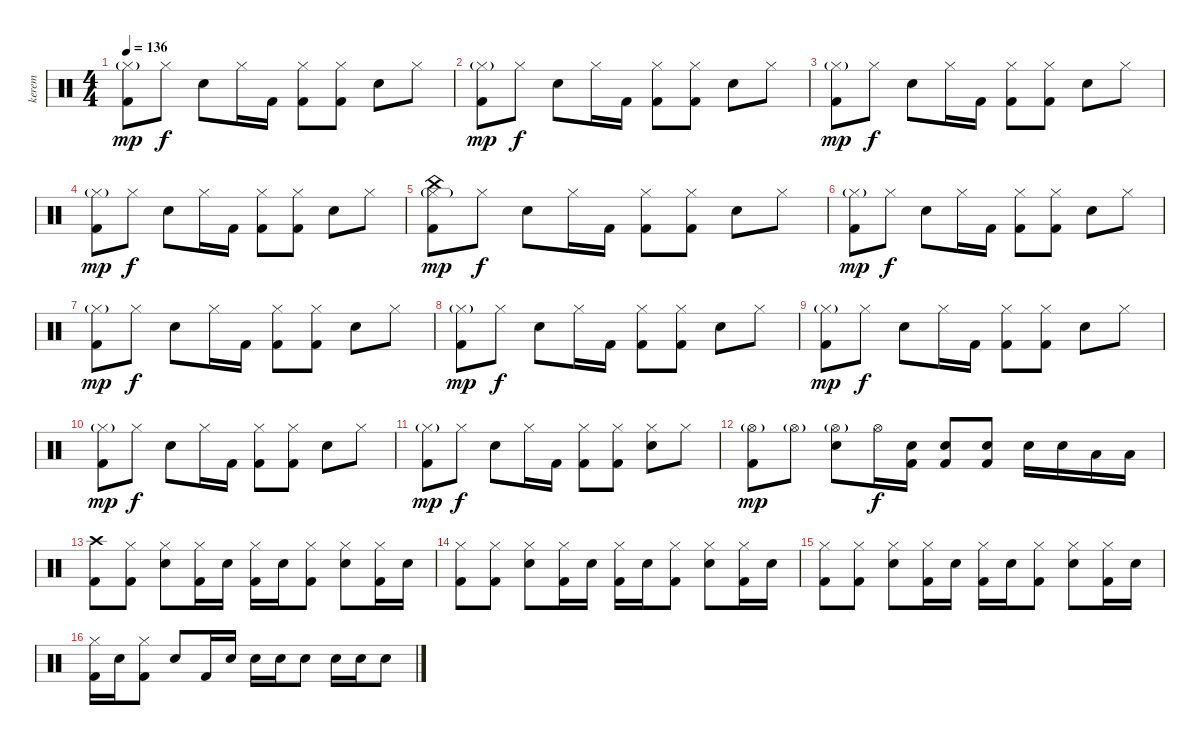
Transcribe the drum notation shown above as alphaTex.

\track ("kerem" "kerem") {instrument percussion}
\staff {score}
\articulation defaults
\ts (4 4)
\tempo 136
\clef neutral
\ks c
("Kick (hit) 2" "Hi-Hat (closed)"{g}).8{dy mp} "Hi-Hat (closed)".8{dy f} "Electric Snare (hit)".8 "Hi-Hat (closed)".16 "Kick (hit) 2".16 ("Kick (hit) 2" "Hi-Hat (closed)").8 ("Kick (hit) 2" "Hi-Hat (closed)").8 "Electric Snare (hit)".8 "Hi-Hat (closed)".8 |
("Kick (hit) 2" "Hi-Hat (closed)"{g}).8{dy mp} "Hi-Hat (closed)".8{dy f} "Electric Snare (hit)".8 "Hi-Hat (closed)".16 "Kick (hit) 2".16 ("Kick (hit) 2" "Hi-Hat (closed)").8 ("Kick (hit) 2" "Hi-Hat (closed)").8 "Electric Snare (hit)".8 "Hi-Hat (closed)".8 |
("Kick (hit) 2" "Hi-Hat (closed)"{g}).8{dy mp} "Hi-Hat (closed)".8{dy f} "Electric Snare (hit)".8 "Hi-Hat (closed)".16 "Kick (hit) 2".16 ("Kick (hit) 2" "Hi-Hat (closed)").8 ("Kick (hit) 2" "Hi-Hat (closed)").8 "Electric Snare (hit)".8 "Hi-Hat (closed)".8 |
("Kick (hit) 2" "Hi-Hat (closed)"{g}).8{dy mp} "Hi-Hat (closed)".8{dy f} "Electric Snare (hit)".8 "Hi-Hat (closed)".16 "Kick (hit) 2".16 ("Kick (hit) 2" "Hi-Hat (closed)").8 ("Kick (hit) 2" "Hi-Hat (closed)").8 "Electric Snare (hit)".8 "Hi-Hat (closed)".8 |
("China (hit)" "Kick (hit) 2" "Hi-Hat (closed)"{g}).8{dy mp} "Hi-Hat (closed)".8{dy f} "Electric Snare (hit)".8 "Hi-Hat (closed)".16 "Kick (hit) 2".16 ("Kick (hit) 2" "Hi-Hat (closed)").8 ("Kick (hit) 2" "Hi-Hat (closed)").8 "Electric Snare (hit)".8 "Hi-Hat (closed)".8 |
("Kick (hit) 2" "Hi-Hat (closed)"{g}).8{dy mp} "Hi-Hat (closed)".8{dy f} "Electric Snare (hit)".8 "Hi-Hat (closed)".16 "Kick (hit) 2".16 ("Kick (hit) 2" "Hi-Hat (closed)").8 ("Kick (hit) 2" "Hi-Hat (closed)").8 "Electric Snare (hit)".8 "Hi-Hat (closed)".8 |
("Kick (hit) 2" "Hi-Hat (closed)"{g}).8{dy mp} "Hi-Hat (closed)".8{dy f} "Electric Snare (hit)".8 "Hi-Hat (closed)".16 "Kick (hit) 2".16 ("Kick (hit) 2" "Hi-Hat (closed)").8 ("Kick (hit) 2" "Hi-Hat (closed)").8 "Electric Snare (hit)".8 "Hi-Hat (closed)".8 |
("Kick (hit) 2" "Hi-Hat (closed)"{g}).8{dy mp} "Hi-Hat (closed)".8{dy f} "Electric Snare (hit)".8 "Hi-Hat (closed)".16 "Kick (hit) 2".16 ("Kick (hit) 2" "Hi-Hat (closed)").8 ("Kick (hit) 2" "Hi-Hat (closed)").8 "Electric Snare (hit)".8 "Hi-Hat (closed)".8 |
("Kick (hit) 2" "Hi-Hat (closed)"{g}).8{dy mp} "Hi-Hat (closed)".8{dy f} "Electric Snare (hit)".8 "Hi-Hat (closed)".16 "Kick (hit) 2".16 ("Kick (hit) 2" "Hi-Hat (closed)").8 ("Kick (hit) 2" "Hi-Hat (closed)").8 "Electric Snare (hit)".8 "Hi-Hat (closed)".8 |
("Kick (hit) 2" "Hi-Hat (closed)"{g}).8{dy mp} "Hi-Hat (closed)".8{dy f} "Electric Snare (hit)".8 "Hi-Hat (closed)".16 "Kick (hit) 2".16 ("Kick (hit) 2" "Hi-Hat (closed)").8 ("Kick (hit) 2" "Hi-Hat (closed)").8 "Electric Snare (hit)".8 "Hi-Hat (closed)".8 |
("Kick (hit) 2" "Hi-Hat (closed)"{g}).8{dy mp} "Hi-Hat (closed)".8{dy f} "Electric Snare (hit)".8 "Hi-Hat (closed)".16 "Kick (hit) 2".16 ("Kick (hit) 2" "Hi-Hat (closed)").8 ("Kick (hit) 2" "Hi-Hat (closed)").8 ("Electric Snare (hit)" "Hi-Hat (closed)").8 "Hi-Hat (closed)".8 |
("Kick (hit) 2" "Hi-Hat (open)"{g}).8{dy mp} "Hi-Hat (open)"{g}.8 ("Electric Snare (hit)" "Hi-Hat (open)"{g}).8 "Hi-Hat (open)".16{dy f} ("Kick (hit) 2" "Electric Snare (hit)").16 ("Kick (hit) 2" "Electric Snare (hit)").8 ("Kick (hit) 2" "Electric Snare (hit)").8 "Electric Snare (hit)".16 "Electric Snare (hit)".16 "Low Tom (hit)".16 "Low Tom (hit)".16 |
("Kick (hit) 2" "Crash high (hit)").8 ("Kick (hit) 2" "Hi-Hat (closed)").8 ("Electric Snare (hit)" "Hi-Hat (closed)").8 ("Kick (hit) 2" "Hi-Hat (closed)").16 "Electric Snare (hit)".16 ("Kick (hit) 2" "Hi-Hat (closed)").16 "Electric Snare (hit)".16 ("Kick (hit) 2" "Hi-Hat (closed)").8 ("Electric Snare (hit)" "Hi-Hat (closed)").8 ("Kick (hit) 2" "Hi-Hat (closed)").16 "Electric Snare (hit)".16 |
("Kick (hit) 2" "Hi-Hat (closed)").8 ("Kick (hit) 2" "Hi-Hat (closed)").8 ("Electric Snare (hit)" "Hi-Hat (closed)").8 ("Kick (hit) 2" "Hi-Hat (closed)").16 "Electric Snare (hit)".16 ("Kick (hit) 2" "Hi-Hat (closed)").16 "Electric Snare (hit)".16 ("Kick (hit) 2" "Hi-Hat (closed)").8 ("Electric Snare (hit)" "Hi-Hat (closed)").8 ("Kick (hit) 2" "Hi-Hat (closed)").16 "Electric Snare (hit)".16 |
("Kick (hit) 2" "Hi-Hat (closed)").8 ("Kick (hit) 2" "Hi-Hat (closed)").8 ("Electric Snare (hit)" "Hi-Hat (closed)").8 ("Kick (hit) 2" "Hi-Hat (closed)").16 "Electric Snare (hit)".16 ("Kick (hit) 2" "Hi-Hat (closed)").16 "Electric Snare (hit)".16 ("Kick (hit) 2" "Hi-Hat (closed)").8 ("Electric Snare (hit)" "Hi-Hat (closed)").8 ("Kick (hit) 2" "Hi-Hat (closed)").16 "Electric Snare (hit)".16 |
("Kick (hit) 2" "Hi-Hat (closed)").16 "Electric Snare (hit)".16 ("Kick (hit) 2" "Hi-Hat (closed)").8 "Electric Snare (hit)".8 "Kick (hit) 2".16 "Electric Snare (hit)".16 "Electric Snare (hit)".16 "Electric Snare (hit)".16 "Electric Snare (hit)".8 "Electric Snare (hit)".16 "Electric Snare (hit)".16 "Electric Snare (hit)".8
